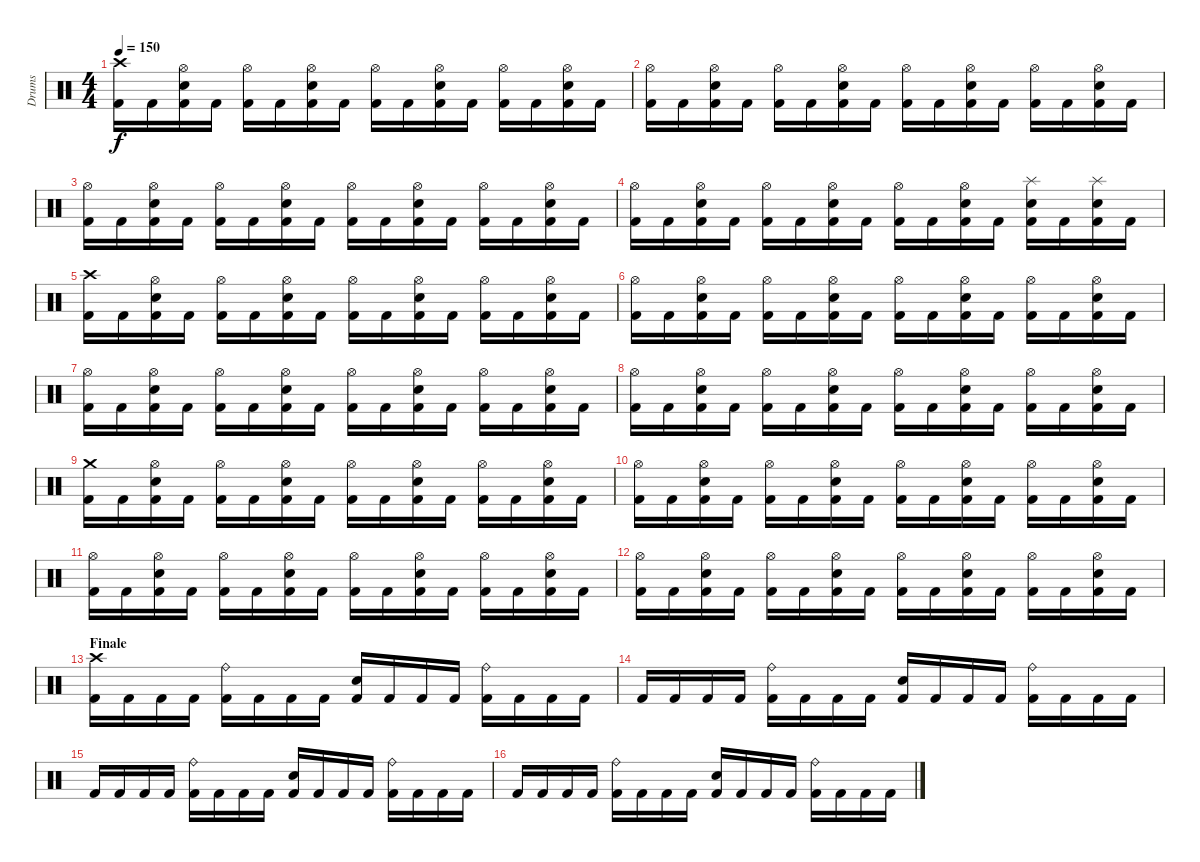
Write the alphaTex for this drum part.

\track ("Drums" "Drums") {instrument percussion}
\staff {score}
\articulation defaults
\ts (4 4)
\tempo 150
\clef neutral
\ks c
("Crash high (hit)" "Kick (hit) 2").16{dy f} "Kick (hit) 2".16 ("Hi-Hat (open)" "Snare (hit) 2" "Kick (hit) 2").16 "Kick (hit) 2".16 ("Hi-Hat (open)" "Kick (hit) 2").16 "Kick (hit) 2".16 ("Hi-Hat (open)" "Snare (hit) 2" "Kick (hit) 2").16 "Kick (hit) 2".16 ("Hi-Hat (open)" "Kick (hit) 2").16 "Kick (hit) 2".16 ("Hi-Hat (open)" "Snare (hit) 2" "Kick (hit) 2").16 "Kick (hit) 2".16 ("Hi-Hat (open)" "Kick (hit) 2").16 "Kick (hit) 2".16 ("Hi-Hat (open)" "Snare (hit) 2" "Kick (hit) 2").16 "Kick (hit) 2".16 |
("Hi-Hat (open)" "Kick (hit) 2").16 "Kick (hit) 2".16 ("Hi-Hat (open)" "Snare (hit) 2" "Kick (hit) 2").16 "Kick (hit) 2".16 ("Hi-Hat (open)" "Kick (hit) 2").16 "Kick (hit) 2".16 ("Hi-Hat (open)" "Snare (hit) 2" "Kick (hit) 2").16 "Kick (hit) 2".16 ("Hi-Hat (open)" "Kick (hit) 2").16 "Kick (hit) 2".16 ("Hi-Hat (open)" "Snare (hit) 2" "Kick (hit) 2").16 "Kick (hit) 2".16 ("Hi-Hat (open)" "Kick (hit) 2").16 "Kick (hit) 2".16 ("Hi-Hat (open)" "Snare (hit) 2" "Kick (hit) 2").16 "Kick (hit) 2".16 |
("Hi-Hat (open)" "Kick (hit) 2").16 "Kick (hit) 2".16 ("Hi-Hat (open)" "Snare (hit) 2" "Kick (hit) 2").16 "Kick (hit) 2".16 ("Hi-Hat (open)" "Kick (hit) 2").16 "Kick (hit) 2".16 ("Hi-Hat (open)" "Snare (hit) 2" "Kick (hit) 2").16 "Kick (hit) 2".16 ("Hi-Hat (open)" "Kick (hit) 2").16 "Kick (hit) 2".16 ("Hi-Hat (open)" "Snare (hit) 2" "Kick (hit) 2").16 "Kick (hit) 2".16 ("Hi-Hat (open)" "Kick (hit) 2").16 "Kick (hit) 2".16 ("Hi-Hat (open)" "Snare (hit) 2" "Kick (hit) 2").16 "Kick (hit) 2".16 |
("Hi-Hat (open)" "Kick (hit) 2").16 "Kick (hit) 2".16 ("Hi-Hat (open)" "Snare (hit) 2" "Kick (hit) 2").16 "Kick (hit) 2".16 ("Hi-Hat (open)" "Kick (hit) 2").16 "Kick (hit) 2".16 ("Hi-Hat (open)" "Snare (hit) 2" "Kick (hit) 2").16 "Kick (hit) 2".16 ("Hi-Hat (open)" "Kick (hit) 2").16 "Kick (hit) 2".16 ("Hi-Hat (open)" "Snare (hit) 2" "Kick (hit) 2").16 "Kick (hit) 2".16 ("Splash (hit)" "Snare (hit) 2" "Kick (hit) 2").16 "Kick (hit) 2".16 ("Splash (hit)" "Snare (hit) 2" "Kick (hit) 2").16 "Kick (hit) 2".16 |
("Crash high (hit)" "Kick (hit) 2").16 "Kick (hit) 2".16 ("Hi-Hat (open)" "Snare (hit) 2" "Kick (hit) 2").16 "Kick (hit) 2".16 ("Hi-Hat (open)" "Kick (hit) 2").16 "Kick (hit) 2".16 ("Hi-Hat (open)" "Snare (hit) 2" "Kick (hit) 2").16 "Kick (hit) 2".16 ("Hi-Hat (open)" "Kick (hit) 2").16 "Kick (hit) 2".16 ("Hi-Hat (open)" "Snare (hit) 2" "Kick (hit) 2").16 "Kick (hit) 2".16 ("Hi-Hat (open)" "Kick (hit) 2").16 "Kick (hit) 2".16 ("Hi-Hat (open)" "Snare (hit) 2" "Kick (hit) 2").16 "Kick (hit) 2".16 |
("Hi-Hat (open)" "Kick (hit) 2").16 "Kick (hit) 2".16 ("Hi-Hat (open)" "Snare (hit) 2" "Kick (hit) 2").16 "Kick (hit) 2".16 ("Hi-Hat (open)" "Kick (hit) 2").16 "Kick (hit) 2".16 ("Hi-Hat (open)" "Snare (hit) 2" "Kick (hit) 2").16 "Kick (hit) 2".16 ("Hi-Hat (open)" "Kick (hit) 2").16 "Kick (hit) 2".16 ("Hi-Hat (open)" "Snare (hit) 2" "Kick (hit) 2").16 "Kick (hit) 2".16 ("Hi-Hat (open)" "Kick (hit) 2").16 "Kick (hit) 2".16 ("Hi-Hat (open)" "Snare (hit) 2" "Kick (hit) 2").16 "Kick (hit) 2".16 |
("Hi-Hat (open)" "Kick (hit) 2").16 "Kick (hit) 2".16 ("Hi-Hat (open)" "Snare (hit) 2" "Kick (hit) 2").16 "Kick (hit) 2".16 ("Hi-Hat (open)" "Kick (hit) 2").16 "Kick (hit) 2".16 ("Hi-Hat (open)" "Snare (hit) 2" "Kick (hit) 2").16 "Kick (hit) 2".16 ("Hi-Hat (open)" "Kick (hit) 2").16 "Kick (hit) 2".16 ("Hi-Hat (open)" "Snare (hit) 2" "Kick (hit) 2").16 "Kick (hit) 2".16 ("Hi-Hat (open)" "Kick (hit) 2").16 "Kick (hit) 2".16 ("Hi-Hat (open)" "Snare (hit) 2" "Kick (hit) 2").16 "Kick (hit) 2".16 |
("Hi-Hat (open)" "Kick (hit) 2").16 "Kick (hit) 2".16 ("Hi-Hat (open)" "Snare (hit) 2" "Kick (hit) 2").16 "Kick (hit) 2".16 ("Hi-Hat (open)" "Kick (hit) 2").16 "Kick (hit) 2".16 ("Hi-Hat (open)" "Snare (hit) 2" "Kick (hit) 2").16 "Kick (hit) 2".16 ("Hi-Hat (open)" "Kick (hit) 2").16 "Kick (hit) 2".16 ("Hi-Hat (open)" "Snare (hit) 2" "Kick (hit) 2").16 "Kick (hit) 2".16 ("Hi-Hat (open)" "Kick (hit) 2").16 "Kick (hit) 2".16 ("Hi-Hat (open)" "Snare (hit) 2" "Kick (hit) 2").16 "Kick (hit) 2".16 |
("Crash medium (hit)" "Kick (hit) 2").16 "Kick (hit) 2".16 ("Hi-Hat (open)" "Snare (hit) 2" "Kick (hit) 2").16 "Kick (hit) 2".16 ("Hi-Hat (open)" "Kick (hit) 2").16 "Kick (hit) 2".16 ("Hi-Hat (open)" "Snare (hit) 2" "Kick (hit) 2").16 "Kick (hit) 2".16 ("Hi-Hat (open)" "Kick (hit) 2").16 "Kick (hit) 2".16 ("Hi-Hat (open)" "Snare (hit) 2" "Kick (hit) 2").16 "Kick (hit) 2".16 ("Hi-Hat (open)" "Kick (hit) 2").16 "Kick (hit) 2".16 ("Hi-Hat (open)" "Snare (hit) 2" "Kick (hit) 2").16 "Kick (hit) 2".16 |
("Hi-Hat (open)" "Kick (hit) 2").16 "Kick (hit) 2".16 ("Hi-Hat (open)" "Snare (hit) 2" "Kick (hit) 2").16 "Kick (hit) 2".16 ("Hi-Hat (open)" "Kick (hit) 2").16 "Kick (hit) 2".16 ("Hi-Hat (open)" "Snare (hit) 2" "Kick (hit) 2").16 "Kick (hit) 2".16 ("Hi-Hat (open)" "Kick (hit) 2").16 "Kick (hit) 2".16 ("Hi-Hat (open)" "Snare (hit) 2" "Kick (hit) 2").16 "Kick (hit) 2".16 ("Hi-Hat (open)" "Kick (hit) 2").16 "Kick (hit) 2".16 ("Hi-Hat (open)" "Snare (hit) 2" "Kick (hit) 2").16 "Kick (hit) 2".16 |
("Hi-Hat (open)" "Kick (hit) 2").16 "Kick (hit) 2".16 ("Hi-Hat (open)" "Snare (hit) 2" "Kick (hit) 2").16 "Kick (hit) 2".16 ("Hi-Hat (open)" "Kick (hit) 2").16 "Kick (hit) 2".16 ("Hi-Hat (open)" "Snare (hit) 2" "Kick (hit) 2").16 "Kick (hit) 2".16 ("Hi-Hat (open)" "Kick (hit) 2").16 "Kick (hit) 2".16 ("Hi-Hat (open)" "Snare (hit) 2" "Kick (hit) 2").16 "Kick (hit) 2".16 ("Hi-Hat (open)" "Kick (hit) 2").16 "Kick (hit) 2".16 ("Hi-Hat (open)" "Snare (hit) 2" "Kick (hit) 2").16 "Kick (hit) 2".16 |
("Hi-Hat (open)" "Kick (hit) 2").16 "Kick (hit) 2".16 ("Hi-Hat (open)" "Snare (hit) 2" "Kick (hit) 2").16 "Kick (hit) 2".16 ("Hi-Hat (open)" "Kick (hit) 2").16 "Kick (hit) 2".16 ("Hi-Hat (open)" "Snare (hit) 2" "Kick (hit) 2").16 "Kick (hit) 2".16 ("Hi-Hat (open)" "Kick (hit) 2").16 "Kick (hit) 2".16 ("Hi-Hat (open)" "Snare (hit) 2" "Kick (hit) 2").16 "Kick (hit) 2".16 ("Hi-Hat (open)" "Kick (hit) 2").16 "Kick (hit) 2".16 ("Hi-Hat (open)" "Snare (hit) 2" "Kick (hit) 2").16 "Kick (hit) 2".16 |
\section ("" "Finale")
("Crash high (hit)" "Kick (hit) 2").16 "Kick (hit) 2".16 "Kick (hit) 2".16 "Kick (hit) 2".16 ("Ride (bell)" "Kick (hit) 2").16 "Kick (hit) 2".16 "Kick (hit) 2".16 "Kick (hit) 2".16 ("Snare (hit) 2" "Kick (hit) 2").16 "Kick (hit) 2".16 "Kick (hit) 2".16 "Kick (hit) 2".16 ("Ride (bell)" "Kick (hit) 2").16 "Kick (hit) 2".16 "Kick (hit) 2".16 "Kick (hit) 2".16 |
"Kick (hit) 2".16 "Kick (hit) 2".16 "Kick (hit) 2".16 "Kick (hit) 2".16 ("Ride (bell)" "Kick (hit) 2").16 "Kick (hit) 2".16 "Kick (hit) 2".16 "Kick (hit) 2".16 ("Snare (hit) 2" "Kick (hit) 2").16 "Kick (hit) 2".16 "Kick (hit) 2".16 "Kick (hit) 2".16 ("Ride (bell)" "Kick (hit) 2").16 "Kick (hit) 2".16 "Kick (hit) 2".16 "Kick (hit) 2".16 |
"Kick (hit) 2".16 "Kick (hit) 2".16 "Kick (hit) 2".16 "Kick (hit) 2".16 ("Ride (bell)" "Kick (hit) 2").16 "Kick (hit) 2".16 "Kick (hit) 2".16 "Kick (hit) 2".16 ("Snare (hit) 2" "Kick (hit) 2").16 "Kick (hit) 2".16 "Kick (hit) 2".16 "Kick (hit) 2".16 ("Ride (bell)" "Kick (hit) 2").16 "Kick (hit) 2".16 "Kick (hit) 2".16 "Kick (hit) 2".16 |
"Kick (hit) 2".16 "Kick (hit) 2".16 "Kick (hit) 2".16 "Kick (hit) 2".16 ("Ride (bell)" "Kick (hit) 2").16 "Kick (hit) 2".16 "Kick (hit) 2".16 "Kick (hit) 2".16 ("Snare (hit) 2" "Kick (hit) 2").16 "Kick (hit) 2".16 "Kick (hit) 2".16 "Kick (hit) 2".16 ("Ride (bell)" "Kick (hit) 2").16 "Kick (hit) 2".16 "Kick (hit) 2".16 "Kick (hit) 2".16
